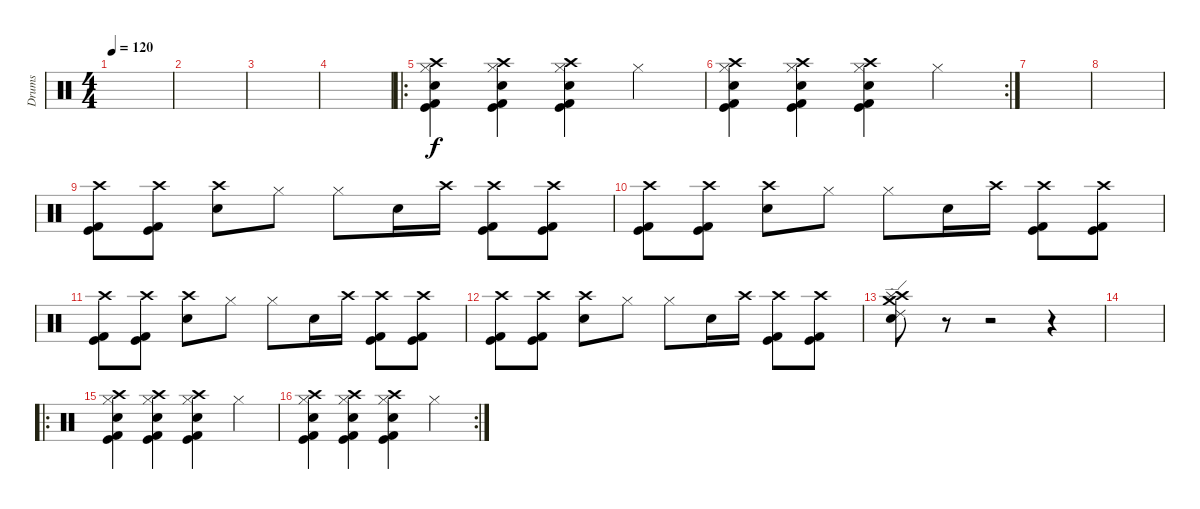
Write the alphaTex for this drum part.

\track ("Drums" "Drums") {instrument percussion}
\staff {score}
\articulation defaults
\ts (4 4)
\tempo 120
\clef neutral
\ks c
|
|
|
|
\ro
("Hi-Hat (closed)" "Kick (hit)" "Kick (hit) 2" "Electric Snare (hit)" "Crash high (hit)").4 ("Hi-Hat (closed)" "Kick (hit)" "Kick (hit) 2" "Electric Snare (hit)" "Crash high (hit)").4 ("Hi-Hat (closed)" "Kick (hit)" "Kick (hit) 2" "Electric Snare (hit)" "Crash high (hit)").4 "Hi-Hat (closed)".4 |
\rc 2
("Hi-Hat (closed)" "Kick (hit)" "Kick (hit) 2" "Electric Snare (hit)" "Crash high (hit)").4 ("Hi-Hat (closed)" "Kick (hit)" "Kick (hit) 2" "Electric Snare (hit)" "Crash high (hit)").4 ("Hi-Hat (closed)" "Kick (hit)" "Kick (hit) 2" "Electric Snare (hit)" "Crash high (hit)").4 "Hi-Hat (closed)".4 |
|
|
("Crash high (hit)" "Kick (hit)" "Kick (hit) 2").8 ("Crash high (hit)" "Kick (hit)" "Kick (hit) 2").8 ("Crash high (hit)" "Electric Snare (hit)").8 "Hi-Hat (closed)".8 "Hi-Hat (closed)".8 "Electric Snare (hit)".16 "Crash high (hit)".16 ("Crash high (hit)" "Kick (hit)" "Kick (hit) 2").8 ("Crash high (hit)" "Kick (hit) 2" "Kick (hit)").8 |
("Crash high (hit)" "Kick (hit)" "Kick (hit) 2").8 ("Crash high (hit)" "Kick (hit)" "Kick (hit) 2").8 ("Crash high (hit)" "Electric Snare (hit)").8 "Hi-Hat (closed)".8 "Hi-Hat (closed)".8 "Electric Snare (hit)".16 "Crash high (hit)".16 ("Crash high (hit)" "Kick (hit)" "Kick (hit) 2").8 ("Crash high (hit)" "Kick (hit) 2" "Kick (hit)").8 |
("Crash high (hit)" "Kick (hit)" "Kick (hit) 2").8 ("Crash high (hit)" "Kick (hit)" "Kick (hit) 2").8 ("Crash high (hit)" "Electric Snare (hit)").8 "Hi-Hat (closed)".8 "Hi-Hat (closed)".8 "Electric Snare (hit)".16 "Crash high (hit)".16 ("Crash high (hit)" "Kick (hit)" "Kick (hit) 2").8 ("Crash high (hit)" "Kick (hit) 2" "Kick (hit)").8 |
("Crash high (hit)" "Kick (hit)" "Kick (hit) 2").8 ("Crash high (hit)" "Kick (hit)" "Kick (hit) 2").8 ("Crash high (hit)" "Electric Snare (hit)").8 "Hi-Hat (closed)".8 "Hi-Hat (closed)".8 "Electric Snare (hit)".16 "Crash high (hit)".16 ("Crash high (hit)" "Kick (hit)" "Kick (hit) 2").8 ("Crash high (hit)" "Kick (hit) 2" "Kick (hit)").8 |
("Crash high (hit)" "Ride (edge) 2" "Crash medium (hit)" "Splash (hit)" "Electric Snare (hit)").8 r.8 r.2 r.4 |
|
\ro
("Hi-Hat (closed)" "Kick (hit)" "Kick (hit) 2" "Electric Snare (hit)" "Crash high (hit)").4 ("Hi-Hat (closed)" "Kick (hit)" "Kick (hit) 2" "Electric Snare (hit)" "Crash high (hit)").4 ("Hi-Hat (closed)" "Kick (hit)" "Kick (hit) 2" "Electric Snare (hit)" "Crash high (hit)").4 "Hi-Hat (closed)".4 |
\rc 2
("Hi-Hat (closed)" "Kick (hit)" "Kick (hit) 2" "Electric Snare (hit)" "Crash high (hit)").4 ("Hi-Hat (closed)" "Kick (hit)" "Kick (hit) 2" "Electric Snare (hit)" "Crash high (hit)").4 ("Hi-Hat (closed)" "Kick (hit)" "Kick (hit) 2" "Electric Snare (hit)" "Crash high (hit)").4 "Hi-Hat (closed)".4
